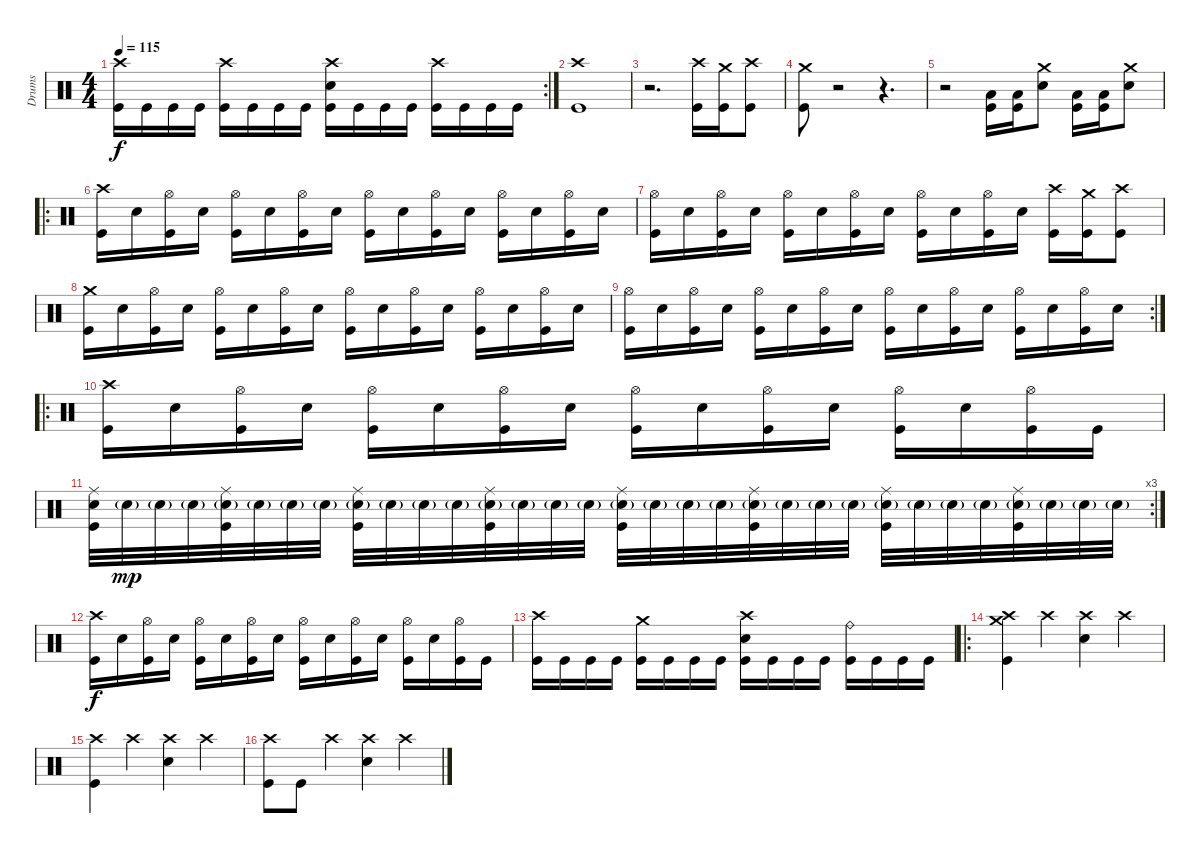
\track ("Drums" "Drums") {instrument percussion}
\staff
\articulation defaults
\rc 2
\ts (4 4)
\tempo 115
\clef neutral
\ks c
("Crash high (hit)" "Kick (hit)").16{dy f} "Kick (hit)".16 "Kick (hit)".16 "Kick (hit)".16 ("Crash high (hit)" "Kick (hit)").16 "Kick (hit)".16 "Kick (hit)".16 "Kick (hit)".16 ("Crash high (hit)" "Snare (hit) 2" "Kick (hit)").16 "Kick (hit)".16 "Kick (hit)".16 "Kick (hit)".16 ("Crash high (hit)" "Kick (hit)").16 "Kick (hit)".16 "Kick (hit)".16 "Kick (hit)".16 |
("Crash high (hit)" "Kick (hit)").1 |
r.2{d} ("Crash high (hit)" "Kick (hit)").16 ("Crash medium (hit)" "Kick (hit)").16 ("Crash high (hit)" "Kick (hit)").8 |
("Crash medium (hit)" "Kick (hit)").8 r.2 r.4{d} |
r.2 ("Low Tom (hit)" "Kick (hit)").16 ("Low Tom (hit)" "Kick (hit)").16 ("Crash medium (hit)" "Snare (hit) 2").8 ("Low Tom (hit)" "Kick (hit)").16 ("Low Tom (hit)" "Kick (hit)").16 ("Crash medium (hit)" "Snare (hit) 2").8 |
\ro
("Crash high (hit)" "Kick (hit)").16 "Snare (hit) 2".16 ("Hi-Hat (open)" "Kick (hit)").16 "Snare (hit) 2".16 ("Hi-Hat (open)" "Kick (hit)").16 "Snare (hit) 2".16 ("Hi-Hat (open)" "Kick (hit)").16 "Snare (hit) 2".16 ("Hi-Hat (open)" "Kick (hit)").16 "Snare (hit) 2".16 ("Hi-Hat (open)" "Kick (hit)").16 "Snare (hit) 2".16 ("Hi-Hat (open)" "Kick (hit)").16 "Snare (hit) 2".16 ("Hi-Hat (open)" "Kick (hit)").16 "Snare (hit) 2".16 |
("Hi-Hat (open)" "Kick (hit)").16 "Snare (hit) 2".16 ("Hi-Hat (open)" "Kick (hit)").16 "Snare (hit) 2".16 ("Hi-Hat (open)" "Kick (hit)").16 "Snare (hit) 2".16 ("Hi-Hat (open)" "Kick (hit)").16 "Snare (hit) 2".16 ("Hi-Hat (open)" "Kick (hit)").16 "Snare (hit) 2".16 ("Hi-Hat (open)" "Kick (hit)").16 "Snare (hit) 2".16 ("Crash high (hit)" "Kick (hit)").16 ("Crash medium (hit)" "Kick (hit)").16 ("Crash high (hit)" "Kick (hit)").8 |
("Crash medium (hit)" "Kick (hit)").16 "Snare (hit) 2".16 ("Hi-Hat (open)" "Kick (hit)").16 "Snare (hit) 2".16 ("Hi-Hat (open)" "Kick (hit)").16 "Snare (hit) 2".16 ("Hi-Hat (open)" "Kick (hit)").16 "Snare (hit) 2".16 ("Hi-Hat (open)" "Kick (hit)").16 "Snare (hit) 2".16 ("Hi-Hat (open)" "Kick (hit)").16 "Snare (hit) 2".16 ("Hi-Hat (open)" "Kick (hit)").16 "Snare (hit) 2".16 ("Hi-Hat (open)" "Kick (hit)").16 "Snare (hit) 2".16 |
\rc 2
("Hi-Hat (open)" "Kick (hit)").16 "Snare (hit) 2".16 ("Hi-Hat (open)" "Kick (hit)").16 "Snare (hit) 2".16 ("Hi-Hat (open)" "Kick (hit)").16 "Snare (hit) 2".16 ("Hi-Hat (open)" "Kick (hit)").16 "Snare (hit) 2".16 ("Hi-Hat (open)" "Kick (hit)").16 "Snare (hit) 2".16 ("Hi-Hat (open)" "Kick (hit)").16 "Snare (hit) 2".16 ("Hi-Hat (open)" "Kick (hit)").16 "Snare (hit) 2".16 ("Hi-Hat (open)" "Kick (hit)").16 "Snare (hit) 2".16 |
\ro
("Crash high (hit)" "Kick (hit)").16 "Snare (hit) 2".16 ("Hi-Hat (open)" "Kick (hit)").16 "Snare (hit) 2".16 ("Hi-Hat (open)" "Kick (hit)").16 "Snare (hit) 2".16 ("Hi-Hat (open)" "Kick (hit)").16 "Snare (hit) 2".16 ("Hi-Hat (open)" "Kick (hit)").16 "Snare (hit) 2".16 ("Hi-Hat (open)" "Kick (hit)").16 "Snare (hit) 2".16 ("Hi-Hat (open)" "Kick (hit)").16 "Snare (hit) 2".16 ("Hi-Hat (open)" "Kick (hit)").16 "Kick (hit)".16 |
\rc 3
("Ride (middle)" "Snare (hit) 2" "Kick (hit)").32 "Snare (hit) 2"{g}.32{dy mp} "Snare (hit) 2"{g}.32 "Snare (hit) 2"{g}.32 ("Ride (middle)" "Snare (hit) 2"{g} "Kick (hit)").32 "Snare (hit) 2"{g}.32 "Snare (hit) 2"{g}.32 "Snare (hit) 2"{g}.32 ("Ride (middle)" "Snare (hit) 2"{g} "Kick (hit)").32 "Snare (hit) 2"{g}.32 "Snare (hit) 2"{g}.32 "Snare (hit) 2"{g}.32 ("Ride (middle)" "Snare (hit) 2"{g} "Kick (hit)").32 "Snare (hit) 2"{g}.32 "Snare (hit) 2"{g}.32 "Snare (hit) 2"{g}.32 ("Ride (middle)" "Snare (hit) 2"{g} "Kick (hit)").32 "Snare (hit) 2"{g}.32 "Snare (hit) 2"{g}.32 "Snare (hit) 2"{g}.32 ("Ride (middle)" "Snare (hit) 2"{g} "Kick (hit)").32 "Snare (hit) 2"{g}.32 "Snare (hit) 2"{g}.32 "Snare (hit) 2"{g}.32 ("Ride (middle)" "Snare (hit) 2"{g} "Kick (hit)").32 "Snare (hit) 2"{g}.32 "Snare (hit) 2"{g}.32 "Snare (hit) 2"{g}.32 ("Ride (middle)" "Snare (hit) 2"{g} "Kick (hit)").32 "Snare (hit) 2"{g}.32 "Snare (hit) 2"{g}.32 "Snare (hit) 2"{g}.32 |
("Crash high (hit)" "Kick (hit)").16{dy f} "Snare (hit) 2".16 ("Hi-Hat (open)" "Kick (hit)").16 "Snare (hit) 2".16 ("Hi-Hat (open)" "Kick (hit)").16 "Snare (hit) 2".16 ("Hi-Hat (open)" "Kick (hit)").16 "Snare (hit) 2".16 ("Hi-Hat (open)" "Kick (hit)").16 "Snare (hit) 2".16 ("Hi-Hat (open)" "Kick (hit)").16 "Snare (hit) 2".16 ("Hi-Hat (open)" "Kick (hit)").16 "Snare (hit) 2".16 ("Hi-Hat (open)" "Kick (hit)").16 "Kick (hit)".16 |
("Crash high (hit)" "Kick (hit)").16 "Kick (hit)".16 "Kick (hit)".16 "Kick (hit)".16 ("Crash medium (hit)" "Kick (hit)").16 "Kick (hit)".16 "Kick (hit)".16 "Kick (hit)".16 ("Crash high (hit)" "Snare (hit) 2" "Kick (hit)").16 "Kick (hit)".16 "Kick (hit)".16 "Kick (hit)".16 ("Ride (bell)" "Kick (hit)").16 "Kick (hit)".16 "Kick (hit)".16 "Kick (hit)".16 |
\ro
("Crash medium (hit)" "Crash high (hit)" "Kick (hit)").4 "Crash high (hit)".4 ("Crash high (hit)" "Snare (hit) 2").4 "Crash high (hit)".4 |
("Crash high (hit)" "Kick (hit)").4 "Crash high (hit)".4 ("Crash high (hit)" "Snare (hit) 2").4 "Crash high (hit)".4 |
("Crash high (hit)" "Kick (hit)").8 "Kick (hit)".8 "Crash high (hit)".4 ("Crash high (hit)" "Snare (hit) 2").4 "Crash high (hit)".4
